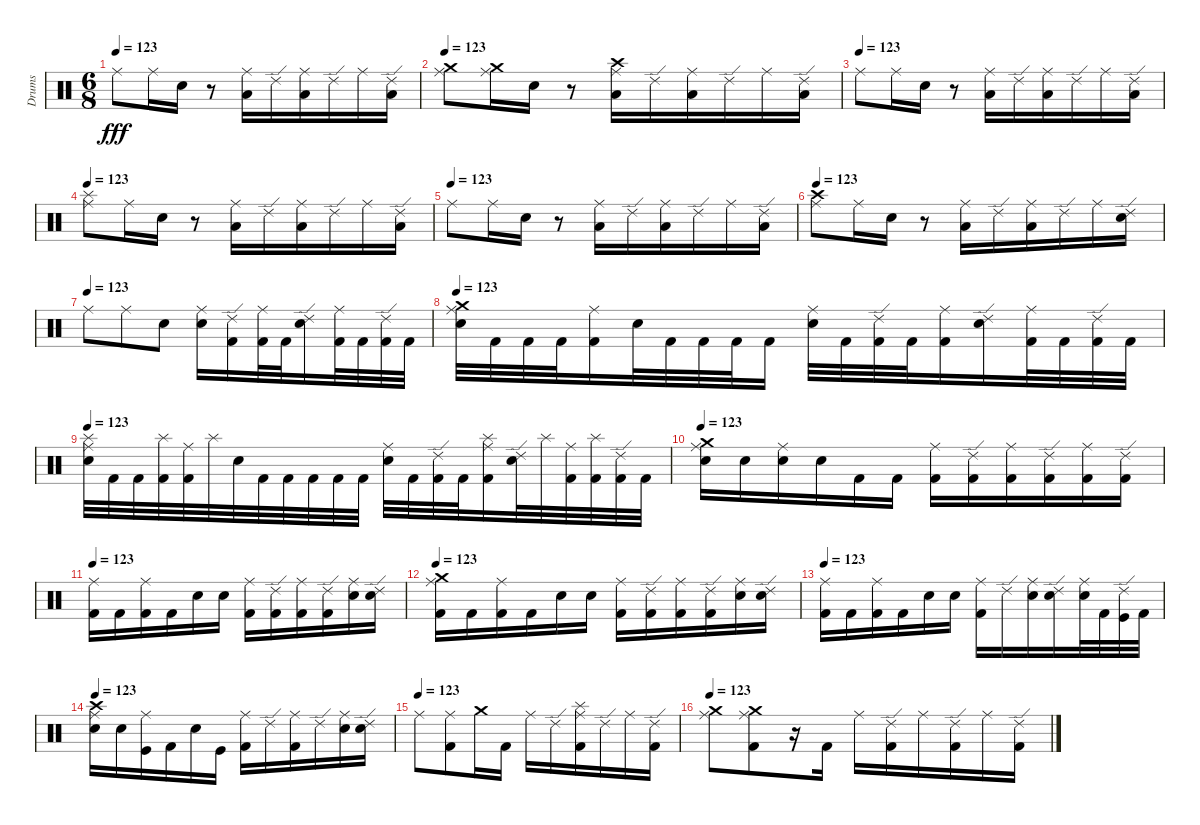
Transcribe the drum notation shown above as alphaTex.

\track ("Drums" "Drums") {instrument percussion}
\staff {score}
\articulation defaults
\ts (6 8)
\tempo 123
\clef neutral
\ks c "Ride (middle)".8{dy fff} "Ride (middle)".16 "Electric Snare (hit)".16
r.8 ("Low Tom (hit)" "Ride (middle)").16 "Ride (edge) 2".16 ("Low Tom (hit)" "Ride (middle)").16 "Ride (edge) 2".16 "Ride (middle)".16 ("Low Tom (hit)" "Ride (edge) 2").16 |
\tempo 123
("Ride (middle)" "Crash medium (hit)").8 ("Ride (middle)" "Crash medium (hit)").16 "Electric Snare (hit)".16 r.8 ("Low Tom (hit)" "Ride (middle)" "Crash high (hit)").16 "Ride (edge) 2".16 ("Low Tom (hit)" "Ride (middle)").16 "Ride (edge) 2".16 "Ride (middle)".16 ("Low Tom (hit)" "Ride (edge) 2").16 |
\tempo (123)
"Ride (middle)".8 "Ride (middle)".16 "Electric Snare (hit)".16 r.8 ("Low Tom (hit)" "Ride (middle)").16 "Ride (edge) 2".16 ("Low Tom (hit)" "Ride (middle)").16 "Ride (edge) 2".16 "Ride (middle)".16 ("Low Tom (hit)" "Ride (edge) 2").16 |
\tempo 123
("Ride (middle)" "Splash (hit)").8 "Ride (middle)".16 "Electric Snare (hit)".16 r.8 ("Low Tom (hit)" "Ride (middle)").16 "Ride (edge) 2".16 ("Low Tom (hit)" "Ride (middle)").16 "Ride (edge) 2".16 "Ride (middle)".16 ("Low Tom (hit)" "Ride (edge) 2").16 |
\tempo (123)
"Ride (middle)".8 "Ride (middle)".16 "Electric Snare (hit)".16 r.8 ("Low Tom (hit)" "Ride (middle)").16 "Ride (edge) 2".16 ("Low Tom (hit)" "Ride (middle)").16 "Ride (edge) 2".16 "Ride (middle)".16 ("Low Tom (hit)" "Ride (edge) 2").16 |
\tempo 123
("Ride (middle)" "Crash high (hit)").8 "Ride (middle)".16 "Electric Snare (hit)".16 r.8 ("Low Tom (hit)" "Ride (middle)").16 "Ride (edge) 2".16 ("Low Tom (hit)" "Ride (middle)").16 "Ride (edge) 2".16 "Ride (middle)".16 ("Snare (hit) 2" "Ride (edge) 2").16 |
\tempo (123)
"Ride (middle)".8 "Ride (middle)".8 "Snare (hit) 2".8 ("Snare (hit) 2" "Ride (middle)").16 ("Kick (hit) 2" "Ride (edge) 2").16 ("Kick (hit) 2" "Ride (middle)").32 "Kick (hit) 2".32 ("Snare (hit) 2" "Ride (edge) 2").16 ("Kick (hit) 2" "Ride (middle)").32 "Kick (hit) 2".32 ("Kick (hit) 2" "Ride (edge) 2").32 "Kick (hit) 2".32 |
\tempo 123
("Snare (hit) 2" "Ride (middle)" "Crash medium (hit)").32 "Kick (hit) 2".32 "Kick (hit) 2".32 "Kick (hit) 2".32 ("Kick (hit) 2" "Ride (middle)").16 "Snare (hit) 2".32 "Kick (hit) 2".32 "Kick (hit) 2".32 "Kick (hit) 2".32 "Kick (hit) 2".16 ("Snare (hit) 2" "Ride (middle)").32 "Kick (hit) 2".32 ("Kick (hit) 2" "Ride (edge) 2").32 "Kick (hit) 2".32 ("Kick (hit) 2" "Ride (middle)").16 ("Snare (hit) 2" "Ride (edge) 2").16 ("Kick (hit) 2" "Ride (middle)").32 "Kick (hit) 2".32 ("Kick (hit) 2" "Ride (edge) 2").32 "Kick (hit) 2".32 |
\tempo 123
("Snare (hit) 2" "Ride (middle)" "Splash (hit)").32 "Kick (hit) 2".32 "Kick (hit) 2".32 ("Splash (hit)" "Kick (hit) 2").32 ("Kick (hit) 2" "Ride (middle)").32 "Splash (hit)".32 "Snare (hit) 2".32 "Kick (hit) 2".32 "Kick (hit) 2".32 "Kick (hit) 2".32 "Kick (hit) 2".32 "Kick (hit) 2".32 ("Snare (hit) 2" "Ride (middle)").32 "Kick (hit) 2".32 ("Kick (hit) 2" "Ride (edge) 2").32 "Kick (hit) 2".32 ("Kick (hit) 2" "Ride (middle)" "Splash (hit)").16 ("Snare (hit) 2" "Ride (edge) 2").32 "Splash (hit)".32 ("Kick (hit) 2" "Ride (middle)").32 ("Kick (hit) 2" "Splash (hit)").32 ("Kick (hit) 2" "Ride (edge) 2").32 "Kick (hit) 2".32 |
\tempo 123
("Snare (hit) 2" "Ride (middle)" "Crash medium (hit)").16 "Snare (hit) 2".16 ("Snare (hit) 2" "Ride (middle)").16 "Snare (hit) 2".16 "Kick (hit) 2".16 "Kick (hit) 2".16 ("Kick (hit) 2" "Ride (middle)").16 ("Kick (hit) 2" "Ride (edge) 2").16 ("Kick (hit) 2" "Ride (middle)").16 ("Kick (hit) 2" "Ride (edge) 2").16 ("Kick (hit) 2" "Ride (middle)").16 ("Kick (hit) 2" "Ride (edge) 2").16 |
\tempo 123
("Kick (hit) 2" "Ride (middle)").16 "Kick (hit) 2".16 ("Kick (hit) 2" "Ride (middle)").16 "Kick (hit) 2".16 "Electric Snare (hit)".16 "Electric Snare (hit)".16 ("Kick (hit) 2" "Ride (middle)").16 ("Kick (hit) 2" "Ride (edge) 2").16 ("Kick (hit) 2" "Ride (middle)").16 ("Kick (hit) 2" "Ride (edge) 2").16 ("Electric Snare (hit)" "Ride (middle)").16 ("Snare (hit) 2" "Ride (edge) 2").16 |
\tempo 123
("Kick (hit) 2" "Ride (middle)" "Crash medium (hit)").16 "Kick (hit) 2".16 ("Kick (hit) 2" "Ride (middle)").16 "Kick (hit) 2".16 "Electric Snare (hit)".16 "Electric Snare (hit)".16 ("Kick (hit) 2" "Ride (middle)").16 ("Kick (hit) 2" "Ride (edge) 2").16 ("Kick (hit) 2" "Ride (middle)").16 ("Kick (hit) 2" "Ride (edge) 2").16 ("Electric Snare (hit)" "Ride (middle)").16 ("Snare (hit) 2" "Ride (edge) 2").16 |
\tempo 123
("Kick (hit) 2" "Ride (middle)").16 "Kick (hit) 2".16 ("Kick (hit) 2" "Ride (middle)").16 "Kick (hit) 2".16 "Electric Snare (hit)".16 "Electric Snare (hit)".16 ("Kick (hit) 2" "Ride (middle)").16 "Ride (edge) 2".16 ("Snare (hit) 2" "Ride (middle)").16 ("Snare (hit) 2" "Ride (edge) 2").16 ("Snare (hit) 2" "Ride (middle)").32 "Kick (hit) 2".32 ("Kick (hit)" "Ride (edge) 2").32 "Kick (hit) 2".32 |
\tempo 123
("Snare (hit) 2" "Ride (middle)" "Crash high (hit)").16 "Snare (hit) 2".16 ("Kick (hit)" "Ride (middle)").16 "Kick (hit) 2".16 "Snare (hit) 2".16 "Kick (hit)".16 ("Kick (hit) 2" "Ride (middle)").16 "Ride (edge) 2".16 ("Kick (hit) 2" "Ride (middle)").16 "Ride (edge) 2".16 ("Snare (hit) 2" "Ride (middle)").16 ("Snare (hit) 2" "Ride (edge) 2").16 |
\tempo (123)
"Ride (middle)".8 ("Kick (hit) 2" "Ride (middle)").8 "Crash medium (hit)".16 "Kick (hit) 2".16 "Ride (middle)".16 "Ride (edge) 2".16 ("Kick (hit) 2" "Ride (middle)" "Splash (hit)").16 "Ride (edge) 2".16 "Ride (middle)".16 ("Kick (hit) 2" "Ride (edge) 2").16 |
\tempo 123
("Ride (middle)" "Crash medium (hit)").8 ("Kick (hit) 2" "Ride (middle)" "Crash medium (hit)").8 r.16 "Kick (hit) 2".16 "Ride (middle)".16 ("Kick (hit) 2" "Ride (edge) 2").16 "Ride (middle)".16 ("Kick (hit) 2" "Ride (edge) 2").16 "Ride (middle)".16 ("Kick (hit) 2" "Ride (edge) 2").16
